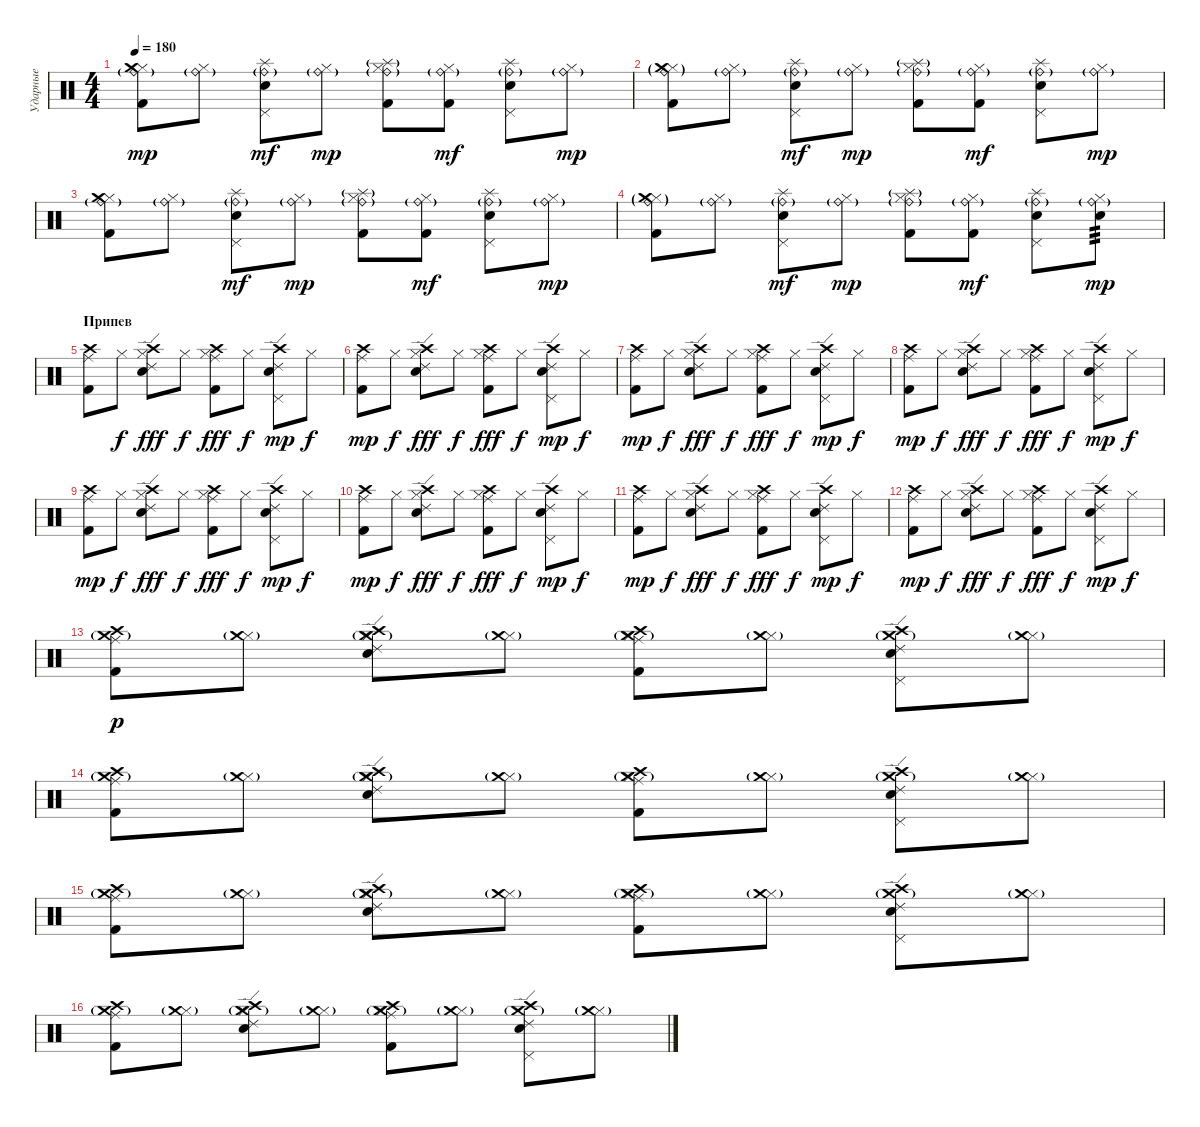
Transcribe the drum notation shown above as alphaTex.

\track ("Ударные" "Ударные") {instrument percussion}
\staff {score}
\articulation defaults
\ts (4 4)
\tempo 180
\clef neutral
\ks c
("Ride (bell)"{g} "Hi-Hat (closed)" "Kick (hit) 2" "Crash medium (hit)").8{dy mp} ("Ride (bell)"{g} "Hi-Hat (closed)").8 ("Ride (bell)"{g} "Snare (hit) 2" "Pedal Hi-Hat (hit)" "Splash (hit)").8{dy mf} ("Ride (bell)"{g} "Hi-Hat (closed)").8{dy mp} ("Ride (bell)"{g} "Hi-Hat (closed)" "Kick (hit) 2" "Splash (hit)"{g}).8 ("Ride (bell)"{g} "Hi-Hat (closed)" "Kick (hit) 2").8{dy mf} ("Ride (bell)"{g} "Pedal Hi-Hat (hit)" "Snare (hit) 2" "Splash (hit)").8 ("Ride (bell)"{g} "Hi-Hat (closed)").8{dy mp} |
("Ride (bell)"{g} "Hi-Hat (closed)" "Kick (hit) 2" "Crash medium (hit)"{g}).8 ("Ride (bell)"{g} "Hi-Hat (closed)").8 ("Ride (bell)"{g} "Snare (hit) 2" "Pedal Hi-Hat (hit)" "Splash (hit)").8{dy mf} ("Ride (bell)"{g} "Hi-Hat (closed)").8{dy mp} ("Ride (bell)"{g} "Hi-Hat (closed)" "Kick (hit) 2" "Splash (hit)"{g}).8 ("Ride (bell)"{g} "Hi-Hat (closed)" "Kick (hit) 2").8{dy mf} ("Ride (bell)"{g} "Pedal Hi-Hat (hit)" "Snare (hit) 2" "Splash (hit)").8 ("Ride (bell)"{g} "Hi-Hat (closed)").8{dy mp} |
("Ride (bell)"{g} "Hi-Hat (closed)" "Kick (hit) 2" "Crash medium (hit)").8 ("Ride (bell)"{g} "Hi-Hat (closed)").8 ("Ride (bell)"{g} "Snare (hit) 2" "Pedal Hi-Hat (hit)" "Splash (hit)").8{dy mf} ("Ride (bell)"{g} "Hi-Hat (closed)").8{dy mp} ("Ride (bell)"{g} "Hi-Hat (closed)" "Kick (hit) 2" "Splash (hit)"{g}).8 ("Ride (bell)"{g} "Hi-Hat (closed)" "Kick (hit) 2").8{dy mf} ("Ride (bell)"{g} "Pedal Hi-Hat (hit)" "Snare (hit) 2" "Splash (hit)").8 ("Ride (bell)"{g} "Hi-Hat (closed)").8{dy mp} |
("Ride (bell)"{g} "Hi-Hat (closed)" "Kick (hit) 2" "Crash medium (hit)"{g}).8 ("Ride (bell)"{g} "Hi-Hat (closed)").8 ("Ride (bell)"{g} "Snare (hit) 2" "Pedal Hi-Hat (hit)" "Splash (hit)").8{dy mf} ("Ride (bell)"{g} "Hi-Hat (closed)").8{dy mp} ("Ride (bell)"{g} "Hi-Hat (closed)" "Kick (hit) 2" "Splash (hit)"{g}).8 ("Ride (bell)"{g} "Hi-Hat (closed)" "Kick (hit) 2").8{dy mf} ("Ride (bell)"{g} "Pedal Hi-Hat (hit)" "Snare (hit) 2" "Splash (hit)").8 ("Ride (bell)"{g} "Hi-Hat (closed)" "Snare (hit) 2").8{tp 3 dy mp} |
\section ("" "Припев")
("Crash high (hit)" "Kick (hit) 2" "Ride (middle)").8 "Hi-Hat (closed)".8{dy f} ("Crash high (hit)" "Hi-Hat (closed)" "Snare (hit) 2" "Ride (edge) 2").8{dy fff} "Hi-Hat (closed)".8{dy f} ("Kick (hit) 2" "Crash high (hit)" "Hi-Hat (closed)" "Ride (middle)").8{dy fff} "Hi-Hat (closed)".8{dy f} ("Pedal Hi-Hat (hit)" "Snare (hit) 2" "Crash high (hit)" "Ride (edge) 2").8{dy mp} "Hi-Hat (closed)".8{dy f} |
("Crash high (hit)" "Kick (hit) 2" "Ride (middle)").8{dy mp} "Hi-Hat (closed)".8{dy f} ("Crash high (hit)" "Hi-Hat (closed)" "Snare (hit) 2" "Ride (edge) 2").8{dy fff} "Hi-Hat (closed)".8{dy f} ("Kick (hit) 2" "Crash high (hit)" "Hi-Hat (closed)" "Ride (middle)").8{dy fff} "Hi-Hat (closed)".8{dy f} ("Pedal Hi-Hat (hit)" "Snare (hit) 2" "Crash high (hit)" "Ride (edge) 2").8{dy mp} "Hi-Hat (closed)".8{dy f} |
("Crash high (hit)" "Kick (hit) 2" "Ride (middle)").8{dy mp} "Hi-Hat (closed)".8{dy f} ("Crash high (hit)" "Hi-Hat (closed)" "Snare (hit) 2" "Ride (edge) 2").8{dy fff} "Hi-Hat (closed)".8{dy f} ("Kick (hit) 2" "Crash high (hit)" "Hi-Hat (closed)" "Ride (middle)").8{dy fff} "Hi-Hat (closed)".8{dy f} ("Pedal Hi-Hat (hit)" "Snare (hit) 2" "Crash high (hit)" "Ride (edge) 2").8{dy mp} "Hi-Hat (closed)".8{dy f} |
("Crash high (hit)" "Kick (hit) 2" "Ride (middle)").8{dy mp} "Hi-Hat (closed)".8{dy f} ("Crash high (hit)" "Hi-Hat (closed)" "Snare (hit) 2" "Ride (edge) 2").8{dy fff} "Hi-Hat (closed)".8{dy f} ("Kick (hit) 2" "Crash high (hit)" "Hi-Hat (closed)" "Ride (middle)").8{dy fff} "Hi-Hat (closed)".8{dy f} ("Pedal Hi-Hat (hit)" "Snare (hit) 2" "Crash high (hit)" "Ride (edge) 2").8{dy mp} "Hi-Hat (closed)".8{dy f} |
("Crash high (hit)" "Kick (hit) 2" "Ride (middle)").8{dy mp} "Hi-Hat (closed)".8{dy f} ("Crash high (hit)" "Hi-Hat (closed)" "Snare (hit) 2" "Ride (edge) 2").8{dy fff} "Hi-Hat (closed)".8{dy f} ("Kick (hit) 2" "Crash high (hit)" "Hi-Hat (closed)" "Ride (middle)").8{dy fff} "Hi-Hat (closed)".8{dy f} ("Pedal Hi-Hat (hit)" "Snare (hit) 2" "Crash high (hit)" "Ride (edge) 2").8{dy mp} "Hi-Hat (closed)".8{dy f} |
("Crash high (hit)" "Kick (hit) 2" "Ride (middle)").8{dy mp} "Hi-Hat (closed)".8{dy f} ("Crash high (hit)" "Hi-Hat (closed)" "Snare (hit) 2" "Ride (edge) 2").8{dy fff} "Hi-Hat (closed)".8{dy f} ("Kick (hit) 2" "Crash high (hit)" "Hi-Hat (closed)" "Ride (middle)").8{dy fff} "Hi-Hat (closed)".8{dy f} ("Pedal Hi-Hat (hit)" "Snare (hit) 2" "Crash high (hit)" "Ride (edge) 2").8{dy mp} "Hi-Hat (closed)".8{dy f} |
("Crash high (hit)" "Kick (hit) 2" "Ride (middle)").8{dy mp} "Hi-Hat (closed)".8{dy f} ("Crash high (hit)" "Hi-Hat (closed)" "Snare (hit) 2" "Ride (edge) 2").8{dy fff} "Hi-Hat (closed)".8{dy f} ("Kick (hit) 2" "Crash high (hit)" "Hi-Hat (closed)" "Ride (middle)").8{dy fff} "Hi-Hat (closed)".8{dy f} ("Pedal Hi-Hat (hit)" "Snare (hit) 2" "Crash high (hit)" "Ride (edge) 2").8{dy mp} "Hi-Hat (closed)".8{dy f} |
("Crash high (hit)" "Kick (hit) 2" "Ride (middle)").8{dy mp} "Hi-Hat (closed)".8{dy f} ("Crash high (hit)" "Hi-Hat (closed)" "Snare (hit) 2" "Ride (edge) 2").8{dy fff} "Hi-Hat (closed)".8{dy f} ("Kick (hit) 2" "Crash high (hit)" "Hi-Hat (closed)" "Ride (middle)").8{dy fff} "Hi-Hat (closed)".8{dy f} ("Pedal Hi-Hat (hit)" "Snare (hit) 2" "Crash high (hit)" "Ride (edge) 2").8{dy mp} "Hi-Hat (closed)".8{dy f} |
("Crash high (hit)" "Kick (hit) 2" "Ride (middle)" "Crash medium (hit)"{g}).8{dy p} ("Hi-Hat (closed)" "Crash medium (hit)"{g}).8 ("Crash high (hit)" "Hi-Hat (closed)" "Snare (hit) 2" "Ride (edge) 2" "Crash medium (hit)"{g}).8 ("Hi-Hat (closed)" "Crash medium (hit)"{g}).8 ("Kick (hit) 2" "Crash high (hit)" "Hi-Hat (closed)" "Ride (middle)" "Crash medium (hit)"{g}).8 ("Hi-Hat (closed)" "Crash medium (hit)"{g}).8 ("Pedal Hi-Hat (hit)" "Snare (hit) 2" "Crash high (hit)" "Ride (edge) 2" "Crash medium (hit)"{g}).8 ("Hi-Hat (closed)" "Crash medium (hit)"{g}).8 |
("Crash high (hit)" "Kick (hit) 2" "Ride (middle)" "Crash medium (hit)"{g}).8 ("Hi-Hat (closed)" "Crash medium (hit)"{g}).8 ("Crash high (hit)" "Hi-Hat (closed)" "Snare (hit) 2" "Ride (edge) 2" "Crash medium (hit)"{g}).8 ("Hi-Hat (closed)" "Crash medium (hit)"{g}).8 ("Kick (hit) 2" "Crash high (hit)" "Hi-Hat (closed)" "Ride (middle)" "Crash medium (hit)"{g}).8 ("Hi-Hat (closed)" "Crash medium (hit)"{g}).8 ("Pedal Hi-Hat (hit)" "Snare (hit) 2" "Crash high (hit)" "Ride (edge) 2" "Crash medium (hit)"{g}).8 ("Hi-Hat (closed)" "Crash medium (hit)"{g}).8 |
("Crash high (hit)" "Kick (hit) 2" "Ride (middle)" "Crash medium (hit)"{g}).8 ("Hi-Hat (closed)" "Crash medium (hit)"{g}).8 ("Crash high (hit)" "Hi-Hat (closed)" "Snare (hit) 2" "Ride (edge) 2" "Crash medium (hit)"{g}).8 ("Hi-Hat (closed)" "Crash medium (hit)"{g}).8 ("Kick (hit) 2" "Crash high (hit)" "Hi-Hat (closed)" "Ride (middle)" "Crash medium (hit)"{g}).8 ("Hi-Hat (closed)" "Crash medium (hit)"{g}).8 ("Pedal Hi-Hat (hit)" "Snare (hit) 2" "Crash high (hit)" "Ride (edge) 2" "Crash medium (hit)"{g}).8 ("Hi-Hat (closed)" "Crash medium (hit)"{g}).8 |
("Crash high (hit)" "Kick (hit) 2" "Ride (middle)" "Crash medium (hit)"{g}).8 ("Hi-Hat (closed)" "Crash medium (hit)"{g}).8 ("Crash high (hit)" "Hi-Hat (closed)" "Snare (hit) 2" "Ride (edge) 2" "Crash medium (hit)"{g}).8 ("Hi-Hat (closed)" "Crash medium (hit)"{g}).8 ("Kick (hit) 2" "Crash high (hit)" "Hi-Hat (closed)" "Ride (middle)" "Crash medium (hit)"{g}).8 ("Hi-Hat (closed)" "Crash medium (hit)"{g}).8 ("Pedal Hi-Hat (hit)" "Snare (hit) 2" "Crash high (hit)" "Ride (edge) 2" "Crash medium (hit)"{g}).8 ("Hi-Hat (closed)" "Crash medium (hit)"{g}).8
